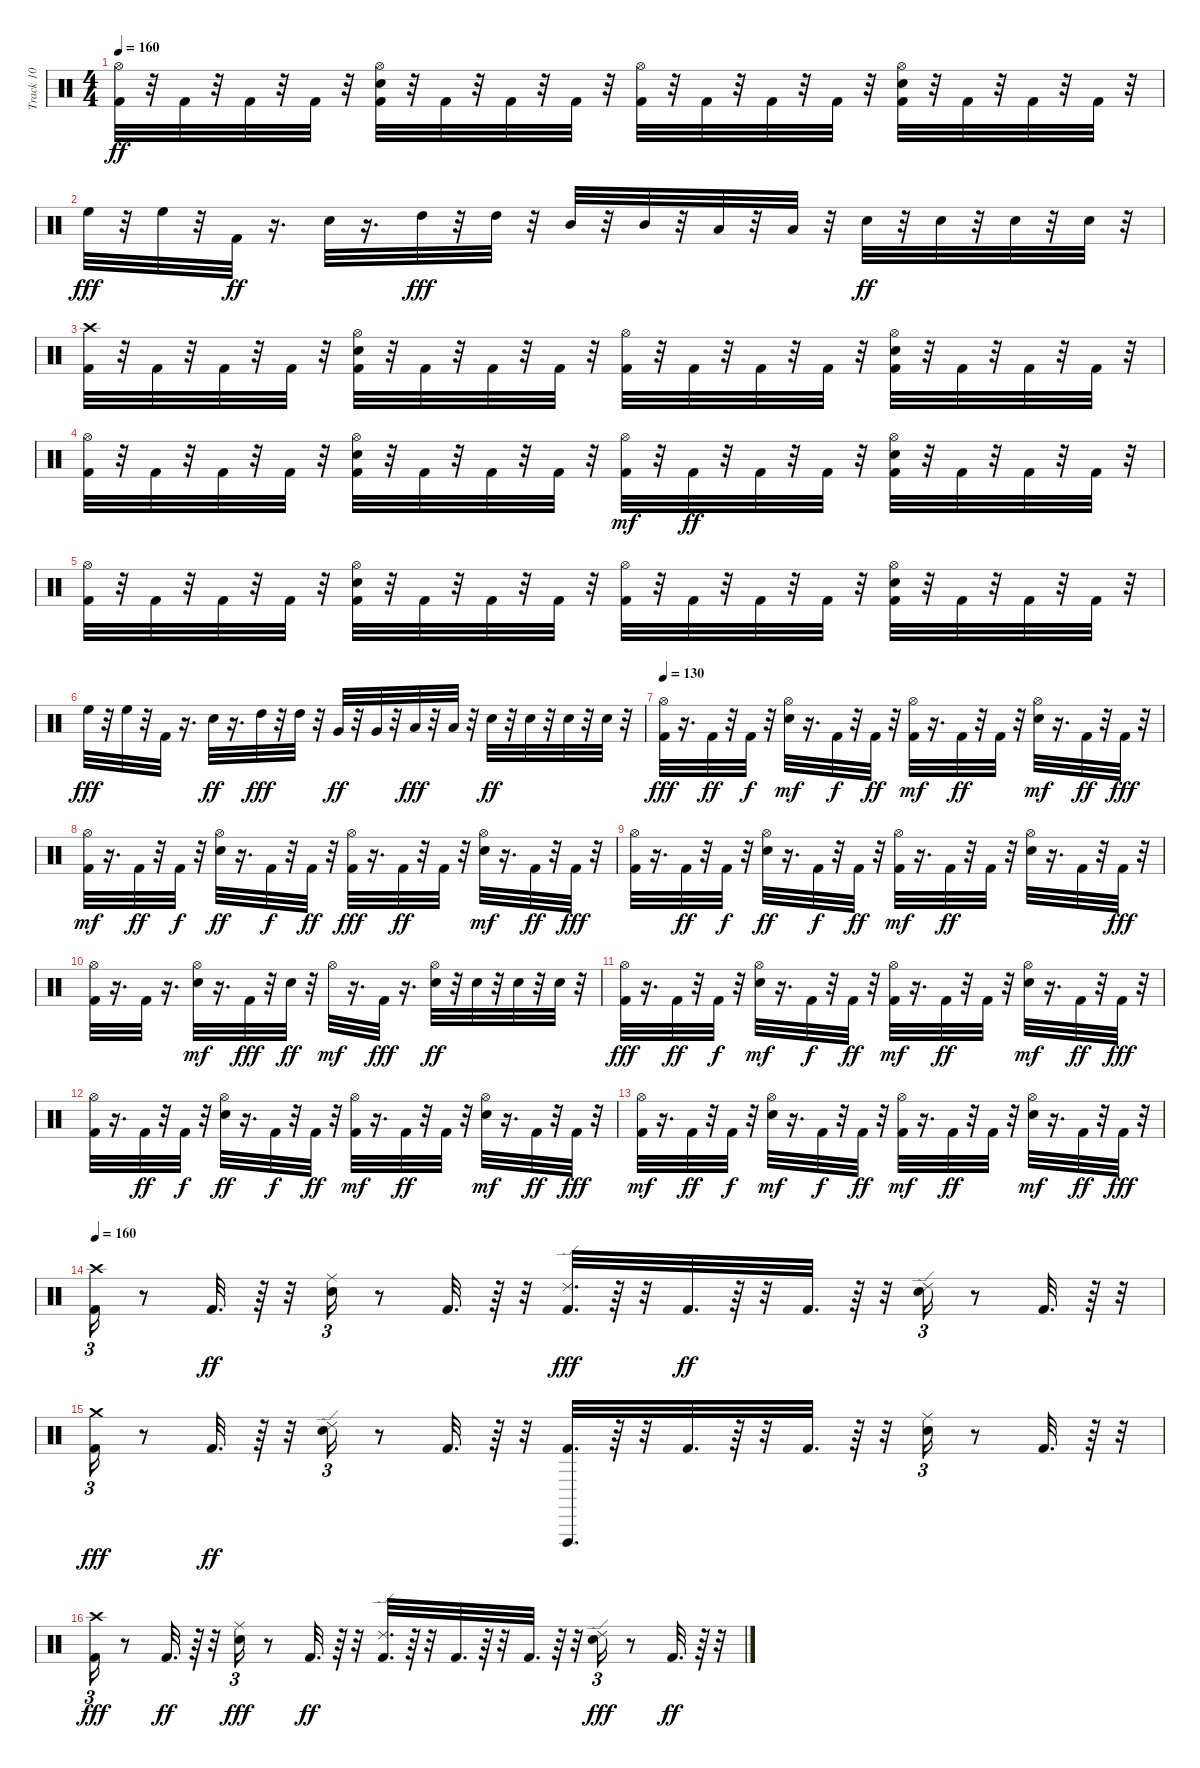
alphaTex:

\track ("Track 10" "Track 10") {instrument percussion}
\staff {score}
\articulation defaults
\ts (4 4)
\tempo 160
\clef neutral
\ks c
("Hi-Hat (open)" "Kick (hit) 2").32{dy ff} r.32 "Kick (hit) 2".32 r.32 "Kick (hit) 2".32 r.32 "Kick (hit) 2".32 r.32 ("Hi-Hat (open)" "Electric Snare (hit)" "Kick (hit) 2").32 r.32 "Kick (hit) 2".32 r.32 "Kick (hit) 2".32 r.32 "Kick (hit) 2".32 r.32 ("Hi-Hat (open)" "Kick (hit) 2").32 r.32 "Kick (hit) 2".32 r.32 "Kick (hit) 2".32 r.32 "Kick (hit) 2".32 r.32 ("Electric Snare (hit)" "Hi-Hat (open)" "Kick (hit) 2").32 r.32 "Kick (hit) 2".32 r.32 "Kick (hit) 2".32 r.32 "Kick (hit) 2".32 r.32 |
"High Floor Tom (hit)".32{dy fff} r.32 "High Floor Tom (hit)".32 r.32 "Kick (hit) 2".32{dy ff} r.16{d} "Electric Snare (hit)".32 r.16{d} "High Tom (hit)".32{dy fff} r.32 "High Tom (hit)".32 r.32 "Mid Tom (hit)".32 r.32 "Mid Tom (hit)".32 r.32 "Low Tom (hit)".32 r.32 "Low Tom (hit)".32 r.32 "Electric Snare (hit)".32{dy ff} r.32 "Electric Snare (hit)".32 r.32 "Electric Snare (hit)".32 r.32 "Electric Snare (hit)".32 r.32 |
("Crash high (hit)" "Kick (hit) 2").32 r.32 "Kick (hit) 2".32 r.32 "Kick (hit) 2".32 r.32 "Kick (hit) 2".32 r.32 ("Kick (hit) 2" "Hi-Hat (open)" "Electric Snare (hit)").32 r.32 "Kick (hit) 2".32 r.32 "Kick (hit) 2".32 r.32 "Kick (hit) 2".32 r.32 ("Hi-Hat (open)" "Kick (hit) 2").32 r.32 "Kick (hit) 2".32 r.32 "Kick (hit) 2".32 r.32 "Kick (hit) 2".32 r.32 ("Hi-Hat (open)" "Electric Snare (hit)" "Kick (hit) 2").32 r.32 "Kick (hit) 2".32 r.32 "Kick (hit) 2".32 r.32 "Kick (hit) 2".32 r.32 |
("Hi-Hat (open)" "Kick (hit) 2").32 r.32 "Kick (hit) 2".32 r.32 "Kick (hit) 2".32 r.32 "Kick (hit) 2".32 r.32 ("Electric Snare (hit)" "Hi-Hat (open)" "Kick (hit) 2").32 r.32 "Kick (hit) 2".32 r.32 "Kick (hit) 2".32 r.32 "Kick (hit) 2".32 r.32 ("Kick (hit) 2" "Hi-Hat (open)").32{dy mf} r.32 "Kick (hit) 2".32{dy ff} r.32 "Kick (hit) 2".32 r.32 "Kick (hit) 2".32 r.32 ("Hi-Hat (open)" "Kick (hit) 2" "Electric Snare (hit)").32 r.32 "Kick (hit) 2".32 r.32 "Kick (hit) 2".32 r.32 "Kick (hit) 2".32 r.32 |
("Hi-Hat (open)" "Kick (hit) 2").32 r.32 "Kick (hit) 2".32 r.32 "Kick (hit) 2".32 r.32 "Kick (hit) 2".32 r.32 ("Hi-Hat (open)" "Electric Snare (hit)" "Kick (hit) 2").32 r.32 "Kick (hit) 2".32 r.32 "Kick (hit) 2".32 r.32 "Kick (hit) 2".32 r.32 ("Hi-Hat (open)" "Kick (hit) 2").32 r.32 "Kick (hit) 2".32 r.32 "Kick (hit) 2".32 r.32 "Kick (hit) 2".32 r.32 ("Hi-Hat (open)" "Electric Snare (hit)" "Kick (hit) 2").32 r.32 "Kick (hit) 2".32 r.32 "Kick (hit) 2".32 r.32 "Kick (hit) 2".32 r.32 |
"High Floor Tom (hit)".32{dy fff} r.32 "High Floor Tom (hit)".32 r.32 "Kick (hit) 2".32 r.16{d} "Electric Snare (hit)".32{dy ff} r.16{d} "High Tom (hit)".32{dy fff} r.32 "High Tom (hit)".32 r.32 "Very Low Tom (hit)".32{dy ff} r.32 "Very Low Tom (hit)".32 r.32 "Low Tom (hit)".32{dy fff} r.32 "Low Tom (hit)".32 r.32 "Electric Snare (hit)".32{dy ff} r.32 "Electric Snare (hit)".32 r.32 "Electric Snare (hit)".32 r.32 "Electric Snare (hit)".32 r.32 |
\tempo 130
("Hi-Hat (open)" "Kick (hit) 2").32{dy fff} r.16{d} "Kick (hit) 2".32{dy ff} r.32 "Kick (hit) 2".32{dy f} r.32 ("Electric Snare (hit)" "Hi-Hat (open)").32{dy mf} r.16{d} "Kick (hit) 2".32{dy f} r.32 "Kick (hit) 2".32{dy ff} r.32 ("Kick (hit) 2" "Hi-Hat (open)").32{dy mf} r.16{d} "Kick (hit) 2".32{dy ff} r.32 "Kick (hit) 2".32 r.32 ("Electric Snare (hit)" "Hi-Hat (open)").32{dy mf} r.16{d} "Kick (hit) 2".32{dy ff} r.32 "Kick (hit) 2".32{dy fff} r.32 |
("Kick (hit) 2" "Hi-Hat (open)").32{dy mf} r.16{d} "Kick (hit) 2".32{dy ff} r.32 "Kick (hit) 2".32{dy f} r.32 ("Hi-Hat (open)" "Electric Snare (hit)").32{dy ff} r.16{d} "Kick (hit) 2".32{dy f} r.32 "Kick (hit) 2".32{dy ff} r.32 ("Hi-Hat (open)" "Kick (hit) 2").32{dy fff} r.16{d} "Kick (hit) 2".32{dy ff} r.32 "Kick (hit) 2".32 r.32 ("Electric Snare (hit)" "Hi-Hat (open)").32{dy mf} r.16{d} "Kick (hit) 2".32{dy ff} r.32 "Kick (hit) 2".32{dy fff} r.32 |
("Hi-Hat (open)" "Kick (hit) 2").32 r.16{d} "Kick (hit) 2".32{dy ff} r.32 "Kick (hit) 2".32{dy f} r.32 ("Hi-Hat (open)" "Electric Snare (hit)").32{dy ff} r.16{d} "Kick (hit) 2".32{dy f} r.32 "Kick (hit) 2".32{dy ff} r.32 ("Kick (hit) 2" "Hi-Hat (open)").32{dy mf} r.16{d} "Kick (hit) 2".32{dy ff} r.32 "Kick (hit) 2".32 r.32 ("Hi-Hat (open)" "Electric Snare (hit)").32 r.16{d} "Kick (hit) 2".32 r.32 "Kick (hit) 2".32{dy fff} r.32 |
("Hi-Hat (open)" "Kick (hit) 2").32 r.16{d} "Kick (hit) 2".32 r.16{d} ("Electric Snare (hit)" "Hi-Hat (open)").32{dy mf} r.16{d} "Kick (hit) 2".32{dy fff} r.32 "Electric Snare (hit)".32{dy ff} r.32 "Hi-Hat (open)".32{dy mf} r.16{d} "Kick (hit) 2".32{dy fff} r.16{d} ("Hi-Hat (open)" "Electric Snare (hit)").32{dy ff} r.32 "Electric Snare (hit)".32 r.32 "Electric Snare (hit)".32 r.32 "Electric Snare (hit)".32 r.32 |
("Hi-Hat (open)" "Kick (hit) 2").32{dy fff} r.16{d} "Kick (hit) 2".32{dy ff} r.32 "Kick (hit) 2".32{dy f} r.32 ("Electric Snare (hit)" "Hi-Hat (open)").32{dy mf} r.16{d} "Kick (hit) 2".32{dy f} r.32 "Kick (hit) 2".32{dy ff} r.32 ("Kick (hit) 2" "Hi-Hat (open)").32{dy mf} r.16{d} "Kick (hit) 2".32{dy ff} r.32 "Kick (hit) 2".32 r.32 ("Electric Snare (hit)" "Hi-Hat (open)").32{dy mf} r.16{d} "Kick (hit) 2".32{dy ff} r.32 "Kick (hit) 2".32{dy fff} r.32 |
("Hi-Hat (open)" "Kick (hit) 2").32 r.16{d} "Kick (hit) 2".32{dy ff} r.32 "Kick (hit) 2".32{dy f} r.32 ("Hi-Hat (open)" "Electric Snare (hit)").32{dy ff} r.16{d} "Kick (hit) 2".32{dy f} r.32 "Kick (hit) 2".32{dy ff} r.32 ("Kick (hit) 2" "Hi-Hat (open)").32{dy mf} r.16{d} "Kick (hit) 2".32{dy ff} r.32 "Kick (hit) 2".32 r.32 ("Electric Snare (hit)" "Hi-Hat (open)").32{dy mf} r.16{d} "Kick (hit) 2".32{dy ff} r.32 "Kick (hit) 2".32{dy fff} r.32 |
("Kick (hit) 2" "Hi-Hat (open)").32{dy mf} r.16{d} "Kick (hit) 2".32{dy ff} r.32 "Kick (hit) 2".32{dy f} r.32 ("Electric Snare (hit)" "Hi-Hat (open)").32{dy mf} r.16{d} "Kick (hit) 2".32{dy f} r.32 "Kick (hit) 2".32{dy ff} r.32 ("Kick (hit) 2" "Hi-Hat (open)").32{dy mf} r.16{d} "Kick (hit) 2".32{dy ff} r.32 "Kick (hit) 2".32 r.32 ("Electric Snare (hit)" "Hi-Hat (open)").32{dy mf} r.16{d} "Kick (hit) 2".32{dy ff} r.32 "Kick (hit) 2".32{dy fff} r.32 |
\tempo 160
("Crash high (hit)" "Kick (hit) 2").16{tu (3 2)} r.8 "Kick (hit) 2".32{d dy ff} r.64 r.32 ("Ride (middle)" "Electric Snare (hit)").16{tu (3 2)} r.8 "Kick (hit) 2".32{d} r.64 r.32 ("Kick (hit) 2" "Ride (edge) 2").32{d dy fff} r.64 r.32 "Kick (hit) 2".32{d dy ff} r.64 r.32 "Kick (hit) 2".32{d} r.64 r.32 ("Ride (edge) 2" "Electric Snare (hit)").16{tu (3 2)} r.8 "Kick (hit) 2".32{d} r.64 r.32 |
("Kick (hit) 2" "Crash medium (hit)").16{tu (3 2) dy fff} r.8 "Kick (hit) 2".32{d dy ff} r.64 r.32 ("Ride (edge) 2" "Electric Snare (hit)").16{tu (3 2)} r.8 "Kick (hit) 2".32{d} r.64 r.32 ("Vibraslap (hit)" "Kick (hit) 2").32{d} r.64 r.32 "Kick (hit) 2".32{d} r.64 r.32 "Kick (hit) 2".32{d} r.64 r.32 ("Ride (middle)" "Electric Snare (hit)").16{tu (3 2)} r.8 "Kick (hit) 2".32{d} r.64 r.32 |
("Crash high (hit)" "Kick (hit) 2").16{tu (3 2) dy fff} r.8 "Kick (hit) 2".32{d dy ff} r.64 r.32 ("Electric Snare (hit)" "Ride (middle)").16{tu (3 2) dy fff} r.8 "Kick (hit) 2".32{d dy ff} r.64 r.32 ("Ride (edge) 2" "Kick (hit) 2").32{d} r.64 r.32 "Kick (hit) 2".32{d} r.64 r.32 "Kick (hit) 2".32{d} r.64 r.32 ("Electric Snare (hit)" "Ride (edge) 2").16{tu (3 2) dy fff} r.8 "Kick (hit) 2".32{d dy ff} r.64 r.32
